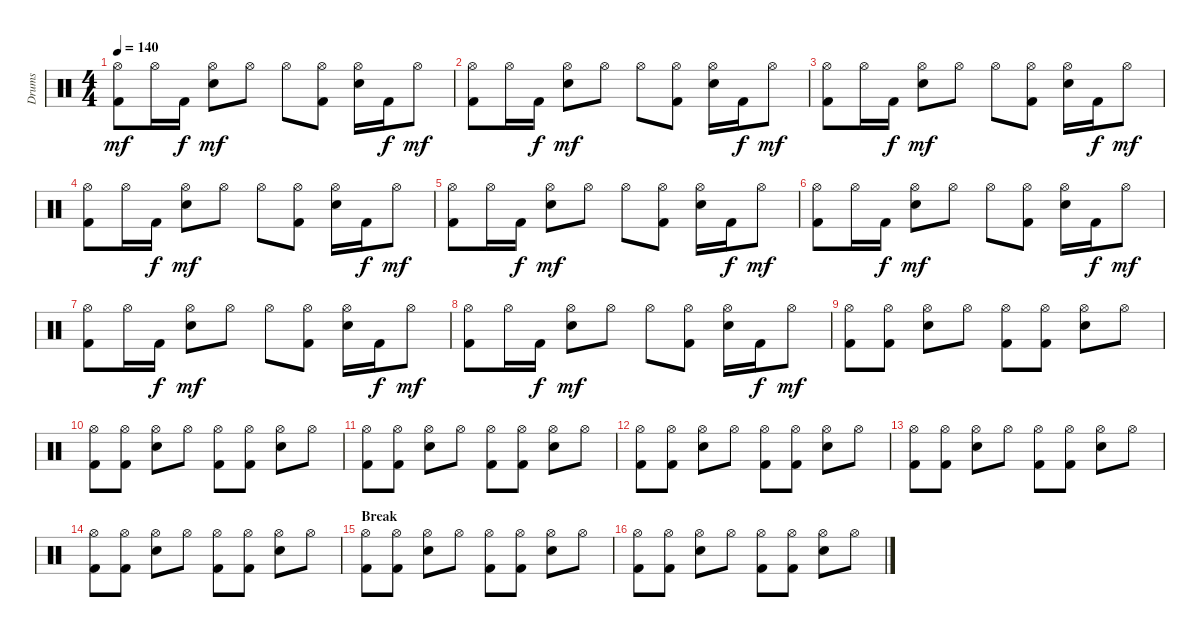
\track ("Drums" "Drums") {instrument percussion}
\staff {score}
\articulation defaults
\ts (4 4)
\tempo 140
\clef neutral
\ks c
("Hi-Hat (open)" "Kick (hit) 2").8{dy mf} "Hi-Hat (open)".16 "Kick (hit) 2".16{dy f} ("Hi-Hat (open)" "Electric Snare (hit)").8{dy mf} "Hi-Hat (open)".8 "Hi-Hat (open)".8 ("Hi-Hat (open)" "Kick (hit) 2").8 ("Hi-Hat (open)" "Electric Snare (hit)").16 "Kick (hit) 2".16{dy f} "Hi-Hat (open)".8{dy mf} |
("Hi-Hat (open)" "Kick (hit) 2").8 "Hi-Hat (open)".16 "Kick (hit) 2".16{dy f} ("Hi-Hat (open)" "Electric Snare (hit)").8{dy mf} "Hi-Hat (open)".8 "Hi-Hat (open)".8 ("Hi-Hat (open)" "Kick (hit) 2").8 ("Hi-Hat (open)" "Electric Snare (hit)").16 "Kick (hit) 2".16{dy f} "Hi-Hat (open)".8{dy mf} |
("Hi-Hat (open)" "Kick (hit) 2").8 "Hi-Hat (open)".16 "Kick (hit) 2".16{dy f} ("Hi-Hat (open)" "Electric Snare (hit)").8{dy mf} "Hi-Hat (open)".8 "Hi-Hat (open)".8 ("Hi-Hat (open)" "Kick (hit) 2").8 ("Hi-Hat (open)" "Electric Snare (hit)").16 "Kick (hit) 2".16{dy f} "Hi-Hat (open)".8{dy mf} |
("Hi-Hat (open)" "Kick (hit) 2").8 "Hi-Hat (open)".16 "Kick (hit) 2".16{dy f} ("Hi-Hat (open)" "Electric Snare (hit)").8{dy mf} "Hi-Hat (open)".8 "Hi-Hat (open)".8 ("Hi-Hat (open)" "Kick (hit) 2").8 ("Hi-Hat (open)" "Electric Snare (hit)").16 "Kick (hit) 2".16{dy f} "Hi-Hat (open)".8{dy mf} |
("Hi-Hat (open)" "Kick (hit) 2").8 "Hi-Hat (open)".16 "Kick (hit) 2".16{dy f} ("Hi-Hat (open)" "Electric Snare (hit)").8{dy mf} "Hi-Hat (open)".8 "Hi-Hat (open)".8 ("Hi-Hat (open)" "Kick (hit) 2").8 ("Hi-Hat (open)" "Electric Snare (hit)").16 "Kick (hit) 2".16{dy f} "Hi-Hat (open)".8{dy mf} |
("Hi-Hat (open)" "Kick (hit) 2").8 "Hi-Hat (open)".16 "Kick (hit) 2".16{dy f} ("Hi-Hat (open)" "Electric Snare (hit)").8{dy mf} "Hi-Hat (open)".8 "Hi-Hat (open)".8 ("Hi-Hat (open)" "Kick (hit) 2").8 ("Hi-Hat (open)" "Electric Snare (hit)").16 "Kick (hit) 2".16{dy f} "Hi-Hat (open)".8{dy mf} |
("Hi-Hat (open)" "Kick (hit) 2").8 "Hi-Hat (open)".16 "Kick (hit) 2".16{dy f} ("Hi-Hat (open)" "Electric Snare (hit)").8{dy mf} "Hi-Hat (open)".8 "Hi-Hat (open)".8 ("Hi-Hat (open)" "Kick (hit) 2").8 ("Hi-Hat (open)" "Electric Snare (hit)").16 "Kick (hit) 2".16{dy f} "Hi-Hat (open)".8{dy mf} |
("Hi-Hat (open)" "Kick (hit) 2").8 "Hi-Hat (open)".16 "Kick (hit) 2".16{dy f} ("Hi-Hat (open)" "Electric Snare (hit)").8{dy mf} "Hi-Hat (open)".8 "Hi-Hat (open)".8 ("Hi-Hat (open)" "Kick (hit) 2").8 ("Hi-Hat (open)" "Electric Snare (hit)").16 "Kick (hit) 2".16{dy f} "Hi-Hat (open)".8{dy mf} |
("Hi-Hat (open)" "Kick (hit) 2").8 ("Hi-Hat (open)" "Kick (hit) 2").8 ("Hi-Hat (open)" "Electric Snare (hit)").8 "Hi-Hat (open)".8 ("Hi-Hat (open)" "Kick (hit) 2").8 ("Hi-Hat (open)" "Kick (hit) 2").8 ("Hi-Hat (open)" "Electric Snare (hit)").8 "Hi-Hat (open)".8 |
("Hi-Hat (open)" "Kick (hit) 2").8 ("Hi-Hat (open)" "Kick (hit) 2").8 ("Hi-Hat (open)" "Electric Snare (hit)").8 "Hi-Hat (open)".8 ("Hi-Hat (open)" "Kick (hit) 2").8 ("Hi-Hat (open)" "Kick (hit) 2").8 ("Hi-Hat (open)" "Electric Snare (hit)").8 "Hi-Hat (open)".8 |
("Hi-Hat (open)" "Kick (hit) 2").8 ("Hi-Hat (open)" "Kick (hit) 2").8 ("Hi-Hat (open)" "Electric Snare (hit)").8 "Hi-Hat (open)".8 ("Hi-Hat (open)" "Kick (hit) 2").8 ("Hi-Hat (open)" "Kick (hit) 2").8 ("Hi-Hat (open)" "Electric Snare (hit)").8 "Hi-Hat (open)".8 |
("Hi-Hat (open)" "Kick (hit) 2").8 ("Hi-Hat (open)" "Kick (hit) 2").8 ("Hi-Hat (open)" "Electric Snare (hit)").8 "Hi-Hat (open)".8 ("Hi-Hat (open)" "Kick (hit) 2").8 ("Hi-Hat (open)" "Kick (hit) 2").8 ("Hi-Hat (open)" "Electric Snare (hit)").8 "Hi-Hat (open)".8 |
("Hi-Hat (open)" "Kick (hit) 2").8 ("Hi-Hat (open)" "Kick (hit) 2").8 ("Hi-Hat (open)" "Electric Snare (hit)").8 "Hi-Hat (open)".8 ("Hi-Hat (open)" "Kick (hit) 2").8 ("Hi-Hat (open)" "Kick (hit) 2").8 ("Hi-Hat (open)" "Electric Snare (hit)").8 "Hi-Hat (open)".8 |
("Hi-Hat (open)" "Kick (hit) 2").8 ("Hi-Hat (open)" "Kick (hit) 2").8 ("Hi-Hat (open)" "Electric Snare (hit)").8 "Hi-Hat (open)".8 ("Hi-Hat (open)" "Kick (hit) 2").8 ("Hi-Hat (open)" "Kick (hit) 2").8 ("Hi-Hat (open)" "Electric Snare (hit)").8 "Hi-Hat (open)".8 |
\section ("" "Break")
("Hi-Hat (open)" "Kick (hit) 2").8 ("Hi-Hat (open)" "Kick (hit) 2").8 ("Hi-Hat (open)" "Electric Snare (hit)").8 "Hi-Hat (open)".8 ("Hi-Hat (open)" "Kick (hit) 2").8 ("Hi-Hat (open)" "Kick (hit) 2").8 ("Hi-Hat (open)" "Electric Snare (hit)").8 "Hi-Hat (open)".8 |
("Hi-Hat (open)" "Kick (hit) 2").8 ("Hi-Hat (open)" "Kick (hit) 2").8 ("Hi-Hat (open)" "Electric Snare (hit)").8 "Hi-Hat (open)".8 ("Hi-Hat (open)" "Kick (hit) 2").8 ("Hi-Hat (open)" "Kick (hit) 2").8 ("Hi-Hat (open)" "Electric Snare (hit)").8 "Hi-Hat (open)".8
